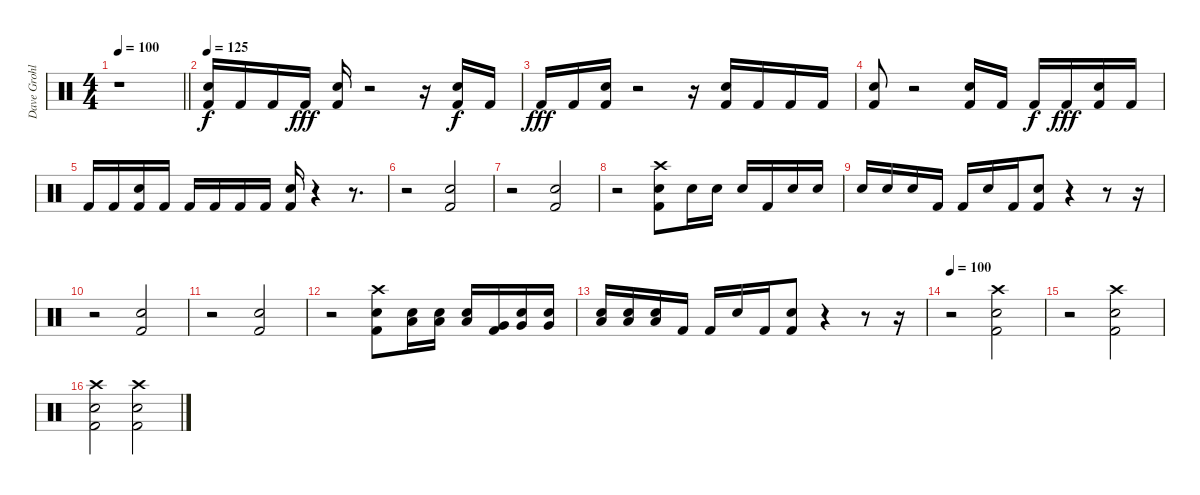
\track ("Dave Grohl" "Dave Grohl") {instrument percussion}
\staff {score}
\articulation defaults
\ts (4 4)
\tempo 100
\clef neutral
\barLineRight lightlight
\ks c
r.1{dy f} |
\tempo 125
("Snare (hit) 2" "Kick (hit) 2").16 "Kick (hit) 2".16 "Kick (hit) 2".16 "Kick (hit) 2".16{dy fff} ("Snare (hit) 2" "Kick (hit) 2").16 r.2 r.16 ("Snare (hit) 2" "Kick (hit) 2").16{dy f} "Kick (hit) 2".16 |
"Kick (hit) 2".16{dy fff} "Kick (hit) 2".16 ("Snare (hit) 2" "Kick (hit) 2").16 r.2 r.16 ("Snare (hit) 2" "Kick (hit) 2").16 "Kick (hit) 2".16 "Kick (hit) 2".16 "Kick (hit) 2".16 |
("Snare (hit) 2" "Kick (hit) 2").8 r.2 ("Snare (hit) 2" "Kick (hit) 2").16 "Kick (hit) 2".16 "Kick (hit) 2".16{dy f} "Kick (hit) 2".16{dy fff} ("Snare (hit) 2" "Kick (hit) 2").16 "Kick (hit) 2".16 |
"Kick (hit) 2".16 "Kick (hit) 2".16 ("Snare (hit) 2" "Kick (hit) 2").16 "Kick (hit) 2".16 "Kick (hit) 2".16 "Kick (hit) 2".16 "Kick (hit) 2".16 "Kick (hit) 2".16 ("Snare (hit) 2" "Kick (hit) 2").16 r.4 r.8{d} |
r.2 ("Snare (hit) 2" "Kick (hit) 2").2 |
r.2 ("Snare (hit) 2" "Kick (hit) 2").2 |
r.2 ("Crash high (hit)" "Snare (hit) 2" "Kick (hit) 2").8 "Snare (hit) 2".16 "Snare (hit) 2".16 "Snare (hit) 2".16 "Kick (hit) 2".16 "Snare (hit) 2".16 "Snare (hit) 2".16 |
"Snare (hit) 2".16 "Snare (hit) 2".16 "Snare (hit) 2".16 "Kick (hit) 2".16 "Kick (hit) 2".16 "Snare (hit) 2".16 "Kick (hit) 2".16 ("Snare (hit) 2" "Kick (hit) 2").8 r.4 r.8 r.16 |
r.2 ("Snare (hit) 2" "Kick (hit) 2").2 |
r.2 ("Snare (hit) 2" "Kick (hit) 2").2 |
r.2 ("Crash high (hit)" "Snare (hit) 2" "Kick (hit) 2").8 ("Low Tom (hit)" "Snare (hit) 2").16 ("Low Tom (hit)" "Snare (hit) 2").16 ("Low Tom (hit)" "Snare (hit) 2").16 ("Very Low Tom (hit)" "Kick (hit) 2").16 ("Very Low Tom (hit)" "Snare (hit) 2").16 ("Very Low Tom (hit)" "Snare (hit) 2").16 |
("Low Floor Tom (hit)" "Snare (hit) 2").16 ("Low Floor Tom (hit)" "Snare (hit) 2").16 ("Low Floor Tom (hit)" "Snare (hit) 2").16 "Kick (hit) 2".16 "Kick (hit) 2".16 "Snare (hit) 2".16 "Kick (hit) 2".16 ("Snare (hit) 2" "Kick (hit) 2").8 r.4 r.8 r.16 |
\tempo 100
r.2 ("Crash high (hit)" "Snare (hit) 2" "Kick (hit) 2").2 |
r.2 ("Crash high (hit)" "Snare (hit) 2" "Kick (hit) 2").2 |
("Crash high (hit)" "Snare (hit) 2" "Kick (hit) 2").2 ("Crash high (hit)" "Snare (hit) 2" "Kick (hit) 2").2
